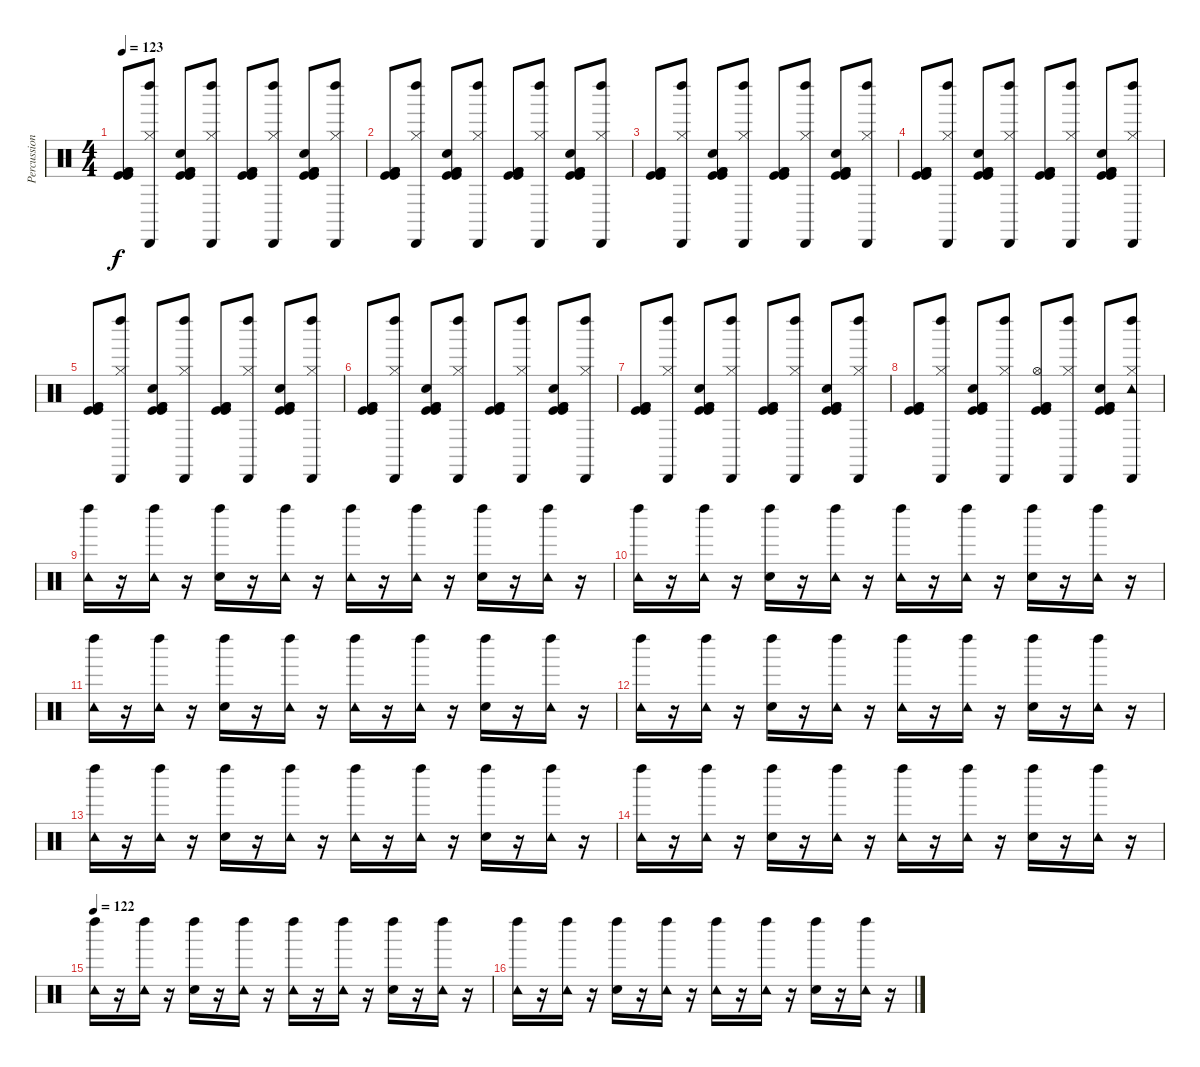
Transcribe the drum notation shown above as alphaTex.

\track ("Percussion" "Percussion") {instrument percussion}
\staff {score}
\articulation defaults
\ts (4 4)
\tempo 123
\clef neutral
\ks c
("Kick (hit)" "Kick (hit)" "Kick (hit) 2" "Kick (hit) 2").8{dy f} ("Cabasa (hit)" "Left Maraca (hit)" "Hi-Hat (closed)").8 ("Hand Clap (hit)" "Kick (hit)" "Kick (hit)" "Kick (hit) 2" "Kick (hit) 2").8 ("Cabasa (hit)" "Left Maraca (hit)" "Hi-Hat (closed)").8 ("Kick (hit)" "Kick (hit) 2" "Kick (hit) 2" "Kick (hit)").8 ("Cabasa (hit)" "Left Maraca (hit)" "Hi-Hat (closed)").8 ("Hand Clap (hit)" "Kick (hit) 2" "Kick (hit)" "Kick (hit) 2" "Kick (hit)").8 ("Cabasa (hit)" "Left Maraca (hit)" "Hi-Hat (closed)").8 |
("Kick (hit)" "Kick (hit)" "Kick (hit) 2" "Kick (hit) 2").8 ("Cabasa (hit)" "Left Maraca (hit)" "Hi-Hat (closed)").8 ("Hand Clap (hit)" "Kick (hit)" "Kick (hit)" "Kick (hit) 2" "Kick (hit) 2").8 ("Cabasa (hit)" "Left Maraca (hit)" "Hi-Hat (closed)").8 ("Kick (hit)" "Kick (hit) 2" "Kick (hit) 2" "Kick (hit)").8 ("Cabasa (hit)" "Left Maraca (hit)" "Hi-Hat (closed)").8 ("Hand Clap (hit)" "Kick (hit) 2" "Kick (hit)" "Kick (hit) 2" "Kick (hit)").8 ("Cabasa (hit)" "Left Maraca (hit)" "Hi-Hat (closed)").8 |
("Kick (hit)" "Kick (hit)" "Kick (hit) 2" "Kick (hit) 2").8 ("Cabasa (hit)" "Left Maraca (hit)" "Hi-Hat (closed)").8 ("Hand Clap (hit)" "Kick (hit)" "Kick (hit)" "Kick (hit) 2" "Kick (hit) 2").8 ("Cabasa (hit)" "Left Maraca (hit)" "Hi-Hat (closed)").8 ("Kick (hit)" "Kick (hit) 2" "Kick (hit) 2" "Kick (hit)").8 ("Cabasa (hit)" "Left Maraca (hit)" "Hi-Hat (closed)").8 ("Hand Clap (hit)" "Kick (hit) 2" "Kick (hit)" "Kick (hit) 2" "Kick (hit)").8 ("Cabasa (hit)" "Left Maraca (hit)" "Hi-Hat (closed)").8 |
("Kick (hit)" "Kick (hit)" "Kick (hit) 2" "Kick (hit) 2").8 ("Cabasa (hit)" "Left Maraca (hit)" "Hi-Hat (closed)").8 ("Hand Clap (hit)" "Kick (hit)" "Kick (hit)" "Kick (hit) 2" "Kick (hit) 2").8 ("Cabasa (hit)" "Left Maraca (hit)" "Hi-Hat (closed)").8 ("Kick (hit)" "Kick (hit) 2" "Kick (hit) 2" "Kick (hit)").8 ("Cabasa (hit)" "Left Maraca (hit)" "Hi-Hat (closed)").8 ("Hand Clap (hit)" "Kick (hit) 2" "Kick (hit)" "Kick (hit) 2" "Kick (hit)").8 ("Cabasa (hit)" "Left Maraca (hit)" "Hi-Hat (closed)").8 |
("Kick (hit)" "Kick (hit)" "Kick (hit) 2" "Kick (hit) 2").8 ("Cabasa (hit)" "Left Maraca (hit)" "Hi-Hat (closed)").8 ("Hand Clap (hit)" "Kick (hit)" "Kick (hit)" "Kick (hit) 2" "Kick (hit) 2").8 ("Cabasa (hit)" "Left Maraca (hit)" "Hi-Hat (closed)").8 ("Kick (hit)" "Kick (hit) 2" "Kick (hit) 2" "Kick (hit)").8 ("Cabasa (hit)" "Left Maraca (hit)" "Hi-Hat (closed)").8 ("Hand Clap (hit)" "Kick (hit) 2" "Kick (hit)" "Kick (hit) 2" "Kick (hit)").8 ("Cabasa (hit)" "Left Maraca (hit)" "Hi-Hat (closed)").8 |
("Kick (hit)" "Kick (hit)" "Kick (hit) 2" "Kick (hit) 2").8 ("Cabasa (hit)" "Left Maraca (hit)" "Hi-Hat (closed)").8 ("Hand Clap (hit)" "Kick (hit)" "Kick (hit)" "Kick (hit) 2" "Kick (hit) 2").8 ("Cabasa (hit)" "Left Maraca (hit)" "Hi-Hat (closed)").8 ("Kick (hit)" "Kick (hit) 2" "Kick (hit) 2" "Kick (hit)").8 ("Cabasa (hit)" "Left Maraca (hit)" "Hi-Hat (closed)").8 ("Hand Clap (hit)" "Kick (hit) 2" "Kick (hit)" "Kick (hit) 2" "Kick (hit)").8 ("Cabasa (hit)" "Left Maraca (hit)" "Hi-Hat (closed)").8 |
("Kick (hit)" "Kick (hit)" "Kick (hit) 2" "Kick (hit) 2").8 ("Cabasa (hit)" "Left Maraca (hit)" "Hi-Hat (closed)").8 ("Hand Clap (hit)" "Kick (hit)" "Kick (hit)" "Kick (hit) 2" "Kick (hit) 2").8 ("Cabasa (hit)" "Left Maraca (hit)" "Hi-Hat (closed)").8 ("Kick (hit)" "Kick (hit) 2" "Kick (hit) 2" "Kick (hit)").8 ("Cabasa (hit)" "Left Maraca (hit)" "Hi-Hat (closed)").8 ("Hand Clap (hit)" "Kick (hit) 2" "Kick (hit)" "Kick (hit) 2" "Kick (hit)").8 ("Cabasa (hit)" "Left Maraca (hit)" "Hi-Hat (closed)").8 |
("Kick (hit)" "Kick (hit)" "Kick (hit) 2" "Kick (hit) 2").8 ("Cabasa (hit)" "Left Maraca (hit)" "Hi-Hat (closed)").8 ("Hand Clap (hit)" "Kick (hit)" "Kick (hit)" "Kick (hit) 2" "Kick (hit) 2").8 ("Cabasa (hit)" "Left Maraca (hit)" "Hi-Hat (closed)").8 ("Hi-Hat (open)" "Kick (hit)" "Kick (hit) 2" "Kick (hit) 2" "Kick (hit)").8 ("Cabasa (hit)" "Left Maraca (hit)" "Hi-Hat (closed)").8 ("Hand Clap (hit)" "Kick (hit) 2" "Kick (hit)" "Kick (hit) 2" "Kick (hit)").8 ("Tambourine (hit)" "Cabasa (hit)" "Left Maraca (hit)" "Hi-Hat (closed)").8 |
("Tambourine (hit)" "Left Maraca (hit)").16 r.16 ("Tambourine (hit)" "Left Maraca (hit)").16 r.16 ("Hand Clap (hit)" "Left Maraca (hit)").16 r.16 ("Tambourine (hit)" "Left Maraca (hit)").16 r.16 ("Tambourine (hit)" "Left Maraca (hit)").16 r.16 ("Tambourine (hit)" "Left Maraca (hit)").16 r.16 ("Hand Clap (hit)" "Left Maraca (hit)").16 r.16 ("Tambourine (hit)" "Left Maraca (hit)").16 r.16 |
("Left Maraca (hit)" "Tambourine (hit)").16 r.16 ("Left Maraca (hit)" "Tambourine (hit)").16 r.16 ("Left Maraca (hit)" "Hand Clap (hit)").16 r.16 ("Left Maraca (hit)" "Tambourine (hit)").16 r.16 ("Left Maraca (hit)" "Tambourine (hit)").16 r.16 ("Left Maraca (hit)" "Tambourine (hit)").16 r.16 ("Left Maraca (hit)" "Hand Clap (hit)").16 r.16 ("Left Maraca (hit)" "Tambourine (hit)").16 r.16 |
("Tambourine (hit)" "Left Maraca (hit)").16 r.16 ("Tambourine (hit)" "Left Maraca (hit)").16 r.16 ("Hand Clap (hit)" "Left Maraca (hit)").16 r.16 ("Tambourine (hit)" "Left Maraca (hit)").16 r.16 ("Tambourine (hit)" "Left Maraca (hit)").16 r.16 ("Tambourine (hit)" "Left Maraca (hit)").16 r.16 ("Hand Clap (hit)" "Left Maraca (hit)").16 r.16 ("Tambourine (hit)" "Left Maraca (hit)").16 r.16 |
("Tambourine (hit)" "Left Maraca (hit)").16 r.16 ("Tambourine (hit)" "Left Maraca (hit)").16 r.16 ("Hand Clap (hit)" "Left Maraca (hit)").16 r.16 ("Tambourine (hit)" "Left Maraca (hit)").16 r.16 ("Tambourine (hit)" "Left Maraca (hit)").16 r.16 ("Tambourine (hit)" "Left Maraca (hit)").16 r.16 ("Hand Clap (hit)" "Left Maraca (hit)").16 r.16 ("Tambourine (hit)" "Left Maraca (hit)").16 r.16 |
("Tambourine (hit)" "Left Maraca (hit)").16 r.16 ("Tambourine (hit)" "Left Maraca (hit)").16 r.16 ("Hand Clap (hit)" "Left Maraca (hit)").16 r.16 ("Tambourine (hit)" "Left Maraca (hit)").16 r.16 ("Tambourine (hit)" "Left Maraca (hit)").16 r.16 ("Tambourine (hit)" "Left Maraca (hit)").16 r.16 ("Hand Clap (hit)" "Left Maraca (hit)").16 r.16 ("Tambourine (hit)" "Left Maraca (hit)").16 r.16 |
("Tambourine (hit)" "Left Maraca (hit)").16 r.16 ("Tambourine (hit)" "Left Maraca (hit)").16 r.16 ("Hand Clap (hit)" "Left Maraca (hit)").16 r.16 ("Tambourine (hit)" "Left Maraca (hit)").16 r.16 ("Tambourine (hit)" "Left Maraca (hit)").16 r.16 ("Tambourine (hit)" "Left Maraca (hit)").16 r.16 ("Hand Clap (hit)" "Left Maraca (hit)").16 r.16 ("Tambourine (hit)" "Left Maraca (hit)").16 r.16 |
\tempo 122
("Tambourine (hit)" "Left Maraca (hit)").16 r.16 ("Tambourine (hit)" "Left Maraca (hit)").16 r.16 ("Hand Clap (hit)" "Left Maraca (hit)").16 r.16 ("Tambourine (hit)" "Left Maraca (hit)").16 r.16 ("Tambourine (hit)" "Left Maraca (hit)").16 r.16 ("Tambourine (hit)" "Left Maraca (hit)").16 r.16 ("Hand Clap (hit)" "Left Maraca (hit)").16 r.16 ("Tambourine (hit)" "Left Maraca (hit)").16 r.16 |
("Tambourine (hit)" "Left Maraca (hit)").16 r.16 ("Tambourine (hit)" "Left Maraca (hit)").16 r.16 ("Hand Clap (hit)" "Left Maraca (hit)").16 r.16 ("Tambourine (hit)" "Left Maraca (hit)").16 r.16 ("Tambourine (hit)" "Left Maraca (hit)").16 r.16 ("Tambourine (hit)" "Left Maraca (hit)").16 r.16 ("Hand Clap (hit)" "Left Maraca (hit)").16 r.16 ("Tambourine (hit)" "Left Maraca (hit)").16 r.16
